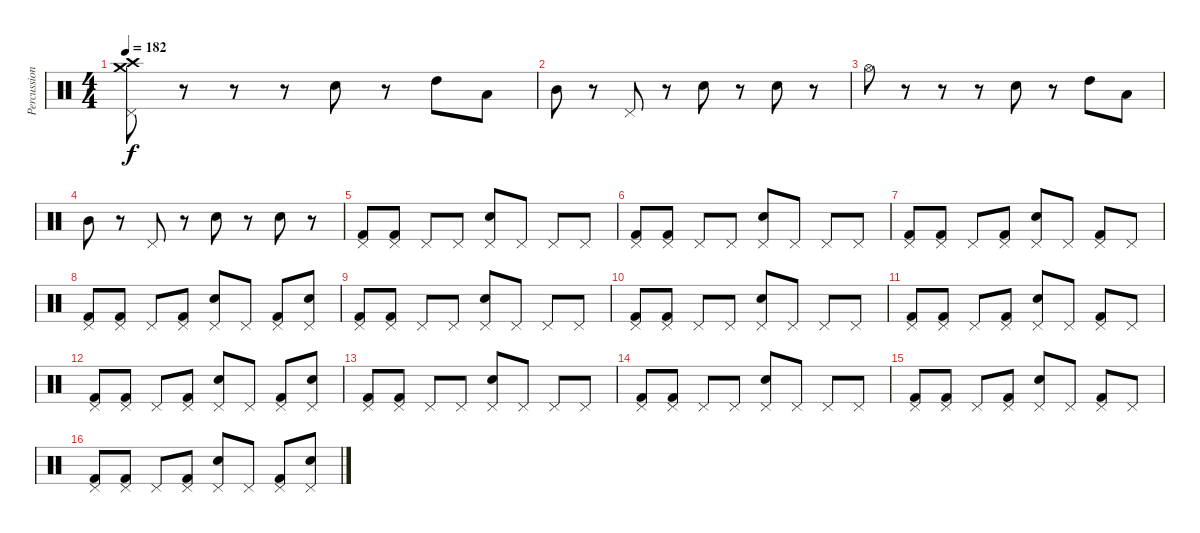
\track ("Percussion" "Percussion") {instrument percussion}
\staff {score}
\articulation defaults
\ts (4 4)
\tempo 182
\clef neutral
\ks c
("Crash high (hit)" "Crash medium (hit)" "Pedal Hi-Hat (hit)").8{dy f} r.8 r.8 r.8 "Snare (hit) 2".8 r.8 "High Tom (hit)".8 "Low Tom (hit)".8 |
"Mid Tom (hit)".8 r.8 "Pedal Hi-Hat (hit)".8 r.8 "Snare (hit) 2".8 r.8 "Snare (hit) 2".8 r.8 |
"Hi-Hat (open)".8 r.8 r.8 r.8 "Snare (hit) 2".8 r.8 "High Tom (hit)".8 "Low Tom (hit)".8 |
"Mid Tom (hit)".8 r.8 "Pedal Hi-Hat (hit)".8 r.8 "Snare (hit) 2".8 r.8 "Snare (hit) 2".8 r.8 |
("Pedal Hi-Hat (hit)" "Kick (hit) 2").8 ("Pedal Hi-Hat (hit)" "Kick (hit) 2").8 "Pedal Hi-Hat (hit)".8 "Pedal Hi-Hat (hit)".8 ("Pedal Hi-Hat (hit)" "Snare (hit) 2").8 "Pedal Hi-Hat (hit)".8 "Pedal Hi-Hat (hit)".8 "Pedal Hi-Hat (hit)".8 |
("Pedal Hi-Hat (hit)" "Kick (hit) 2").8 ("Pedal Hi-Hat (hit)" "Kick (hit) 2").8 "Pedal Hi-Hat (hit)".8 "Pedal Hi-Hat (hit)".8 ("Pedal Hi-Hat (hit)" "Snare (hit) 2").8 "Pedal Hi-Hat (hit)".8 "Pedal Hi-Hat (hit)".8 "Pedal Hi-Hat (hit)".8 |
("Pedal Hi-Hat (hit)" "Kick (hit) 2").8 ("Pedal Hi-Hat (hit)" "Kick (hit) 2").8 "Pedal Hi-Hat (hit)".8 ("Pedal Hi-Hat (hit)" "Kick (hit) 2").8 ("Pedal Hi-Hat (hit)" "Snare (hit) 2").8 "Pedal Hi-Hat (hit)".8 ("Pedal Hi-Hat (hit)" "Kick (hit) 2").8 "Pedal Hi-Hat (hit)".8 |
("Pedal Hi-Hat (hit)" "Kick (hit) 2").8 ("Pedal Hi-Hat (hit)" "Kick (hit) 2").8 "Pedal Hi-Hat (hit)".8 ("Pedal Hi-Hat (hit)" "Kick (hit) 2").8 ("Pedal Hi-Hat (hit)" "Snare (hit) 2").8 "Pedal Hi-Hat (hit)".8 ("Pedal Hi-Hat (hit)" "Kick (hit) 2").8 ("Pedal Hi-Hat (hit)" "Snare (hit) 2").8 |
("Pedal Hi-Hat (hit)" "Kick (hit) 2").8 ("Pedal Hi-Hat (hit)" "Kick (hit) 2").8 "Pedal Hi-Hat (hit)".8 "Pedal Hi-Hat (hit)".8 ("Pedal Hi-Hat (hit)" "Snare (hit) 2").8 "Pedal Hi-Hat (hit)".8 "Pedal Hi-Hat (hit)".8 "Pedal Hi-Hat (hit)".8 |
("Pedal Hi-Hat (hit)" "Kick (hit) 2").8 ("Pedal Hi-Hat (hit)" "Kick (hit) 2").8 "Pedal Hi-Hat (hit)".8 "Pedal Hi-Hat (hit)".8 ("Pedal Hi-Hat (hit)" "Snare (hit) 2").8 "Pedal Hi-Hat (hit)".8 "Pedal Hi-Hat (hit)".8 "Pedal Hi-Hat (hit)".8 |
("Pedal Hi-Hat (hit)" "Kick (hit) 2").8 ("Pedal Hi-Hat (hit)" "Kick (hit) 2").8 "Pedal Hi-Hat (hit)".8 ("Pedal Hi-Hat (hit)" "Kick (hit) 2").8 ("Pedal Hi-Hat (hit)" "Snare (hit) 2").8 "Pedal Hi-Hat (hit)".8 ("Pedal Hi-Hat (hit)" "Kick (hit) 2").8 "Pedal Hi-Hat (hit)".8 |
("Pedal Hi-Hat (hit)" "Kick (hit) 2").8 ("Pedal Hi-Hat (hit)" "Kick (hit) 2").8 "Pedal Hi-Hat (hit)".8 ("Pedal Hi-Hat (hit)" "Kick (hit) 2").8 ("Pedal Hi-Hat (hit)" "Snare (hit) 2").8 "Pedal Hi-Hat (hit)".8 ("Pedal Hi-Hat (hit)" "Kick (hit) 2").8 ("Pedal Hi-Hat (hit)" "Snare (hit) 2").8 |
("Pedal Hi-Hat (hit)" "Kick (hit) 2").8 ("Pedal Hi-Hat (hit)" "Kick (hit) 2").8 "Pedal Hi-Hat (hit)".8 "Pedal Hi-Hat (hit)".8 ("Pedal Hi-Hat (hit)" "Snare (hit) 2").8 "Pedal Hi-Hat (hit)".8 "Pedal Hi-Hat (hit)".8 "Pedal Hi-Hat (hit)".8 |
("Pedal Hi-Hat (hit)" "Kick (hit) 2").8 ("Pedal Hi-Hat (hit)" "Kick (hit) 2").8 "Pedal Hi-Hat (hit)".8 "Pedal Hi-Hat (hit)".8 ("Pedal Hi-Hat (hit)" "Snare (hit) 2").8 "Pedal Hi-Hat (hit)".8 "Pedal Hi-Hat (hit)".8 "Pedal Hi-Hat (hit)".8 |
("Pedal Hi-Hat (hit)" "Kick (hit) 2").8 ("Pedal Hi-Hat (hit)" "Kick (hit) 2").8 "Pedal Hi-Hat (hit)".8 ("Pedal Hi-Hat (hit)" "Kick (hit) 2").8 ("Pedal Hi-Hat (hit)" "Snare (hit) 2").8 "Pedal Hi-Hat (hit)".8 ("Pedal Hi-Hat (hit)" "Kick (hit) 2").8 "Pedal Hi-Hat (hit)".8 |
("Pedal Hi-Hat (hit)" "Kick (hit) 2").8 ("Pedal Hi-Hat (hit)" "Kick (hit) 2").8 "Pedal Hi-Hat (hit)".8 ("Pedal Hi-Hat (hit)" "Kick (hit) 2").8 ("Pedal Hi-Hat (hit)" "Snare (hit) 2").8 "Pedal Hi-Hat (hit)".8 ("Pedal Hi-Hat (hit)" "Kick (hit) 2").8 ("Pedal Hi-Hat (hit)" "Snare (hit) 2").8
